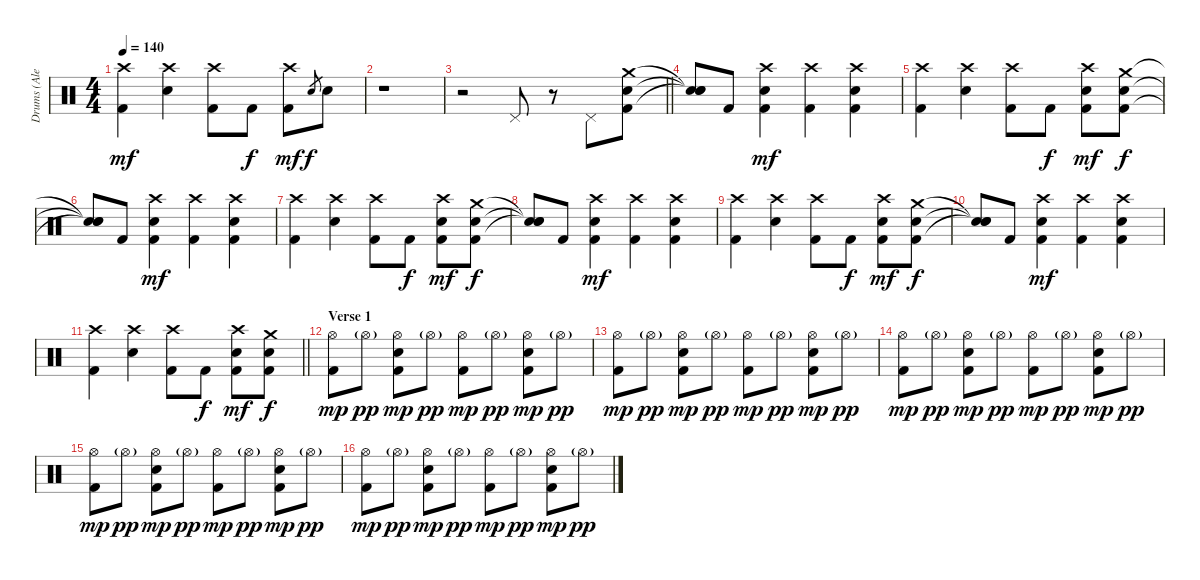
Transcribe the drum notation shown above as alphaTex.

\track ("Drums (Alex Van Halen)" "Drums (Ale") {instrument percussion}
\staff {score}
\articulation defaults
\ts (4 4)
\tempo 140
\clef neutral
\ks c
("Crash high (hit)" "Kick (hit) 2").4{dy mf} ("Crash high (hit)" "Snare (hit) 2").4 ("Crash high (hit)" "Kick (hit) 2").8 "Kick (hit) 2".8{dy f} ("Crash high (hit)" "Kick (hit) 2").8{dy mf} "Snare (hit) 2".8{gr dy f} "Electric Snare (hit)".8 |
r.1 |
\barLineRight lightlight
r.2 "Pedal Hi-Hat (hit)".8 r.8 "Pedal Hi-Hat (hit)".8 ("Crash medium (hit)" "Snare (hit) 2" "Kick (hit) 2").8 |
("Snare (hit)"{t} "Snare (hit)"{t} "Snare (hit)"{t}).8 "Kick (hit) 2".8 ("Crash high (hit)" "Electric Snare (hit)" "Kick (hit) 2").4{dy mf} ("Crash high (hit)" "Kick (hit) 2").4 ("Crash high (hit)" "Electric Snare (hit)" "Kick (hit) 2").4 |
("Crash high (hit)" "Kick (hit) 2").4 ("Crash high (hit)" "Electric Snare (hit)").4 ("Crash high (hit)" "Kick (hit) 2").8 "Kick (hit) 2".8{dy f} ("Crash high (hit)" "Snare (hit) 2" "Kick (hit) 2").8{dy mf} ("Crash medium (hit)" "Electric Snare (hit)" "Kick (hit) 2").8{dy f} |
("Snare (hit)"{t} "Snare (hit)"{t} "Snare (hit)"{t}).8 "Kick (hit) 2".8 ("Crash high (hit)" "Electric Snare (hit)" "Kick (hit) 2").4{dy mf} ("Crash high (hit)" "Kick (hit) 2").4 ("Crash high (hit)" "Electric Snare (hit)" "Kick (hit) 2").4 |
("Crash high (hit)" "Kick (hit) 2").4 ("Crash high (hit)" "Electric Snare (hit)").4 ("Crash high (hit)" "Kick (hit) 2").8 "Kick (hit) 2".8{dy f} ("Crash high (hit)" "Snare (hit) 2" "Kick (hit) 2").8{dy mf} ("Crash medium (hit)" "Electric Snare (hit)" "Kick (hit) 2").8{dy f} |
("Snare (hit)"{t} "Snare (hit)"{t} "Snare (hit)"{t}).8 "Kick (hit) 2".8 ("Crash high (hit)" "Electric Snare (hit)" "Kick (hit) 2").4{dy mf} ("Crash high (hit)" "Kick (hit) 2").4 ("Crash high (hit)" "Electric Snare (hit)" "Kick (hit) 2").4 |
("Crash high (hit)" "Kick (hit) 2").4 ("Crash high (hit)" "Electric Snare (hit)").4 ("Crash high (hit)" "Kick (hit) 2").8 "Kick (hit) 2".8{dy f} ("Crash high (hit)" "Snare (hit) 2" "Kick (hit) 2").8{dy mf} ("Crash medium (hit)" "Electric Snare (hit)" "Kick (hit) 2").8{dy f} |
("Snare (hit)"{t} "Snare (hit)"{t} "Snare (hit)"{t}).8 "Kick (hit) 2".8 ("Crash high (hit)" "Electric Snare (hit)" "Kick (hit) 2").4{dy mf} ("Crash high (hit)" "Kick (hit) 2").4 ("Crash high (hit)" "Electric Snare (hit)" "Kick (hit) 2").4 |
\barLineRight lightlight
("Crash high (hit)" "Kick (hit) 2").4 ("Crash high (hit)" "Electric Snare (hit)").4 ("Crash high (hit)" "Kick (hit) 2").8 "Kick (hit) 2".8{dy f} ("Crash high (hit)" "Snare (hit) 2" "Kick (hit) 2").8{dy mf} ("Crash medium (hit)" "Electric Snare (hit)" "Kick (hit) 2").8{dy f} |
\section ("" "Verse 1")
("Kick (hit) 2" "Hi-Hat (open)").8{dy mp} "Hi-Hat (open)"{g}.8{dy pp} ("Snare (hit) 2" "Kick (hit) 2" "Hi-Hat (open)").8{dy mp} "Hi-Hat (open)"{g}.8{dy pp} ("Kick (hit) 2" "Hi-Hat (open)").8{dy mp} "Hi-Hat (open)"{g}.8{dy pp} ("Snare (hit) 2" "Kick (hit) 2" "Hi-Hat (open)").8{dy mp} "Hi-Hat (open)"{g}.8{dy pp} |
("Kick (hit) 2" "Hi-Hat (open)").8{dy mp} "Hi-Hat (open)"{g}.8{dy pp} ("Snare (hit) 2" "Kick (hit) 2" "Hi-Hat (open)").8{dy mp} "Hi-Hat (open)"{g}.8{dy pp} ("Kick (hit) 2" "Hi-Hat (open)").8{dy mp} "Hi-Hat (open)"{g}.8{dy pp} ("Snare (hit) 2" "Kick (hit) 2" "Hi-Hat (open)").8{dy mp} "Hi-Hat (open)"{g}.8{dy pp} |
("Kick (hit) 2" "Hi-Hat (open)").8{dy mp} "Hi-Hat (open)"{g}.8{dy pp} ("Snare (hit) 2" "Kick (hit) 2" "Hi-Hat (open)").8{dy mp} "Hi-Hat (open)"{g}.8{dy pp} ("Kick (hit) 2" "Hi-Hat (open)").8{dy mp} "Hi-Hat (open)"{g}.8{dy pp} ("Snare (hit) 2" "Kick (hit) 2" "Hi-Hat (open)").8{dy mp} "Hi-Hat (open)"{g}.8{dy pp} |
("Kick (hit) 2" "Hi-Hat (open)").8{dy mp} "Hi-Hat (open)"{g}.8{dy pp} ("Snare (hit) 2" "Kick (hit) 2" "Hi-Hat (open)").8{dy mp} "Hi-Hat (open)"{g}.8{dy pp} ("Kick (hit) 2" "Hi-Hat (open)").8{dy mp} "Hi-Hat (open)"{g}.8{dy pp} ("Snare (hit) 2" "Kick (hit) 2" "Hi-Hat (open)").8{dy mp} "Hi-Hat (open)"{g}.8{dy pp} |
("Kick (hit) 2" "Hi-Hat (open)").8{dy mp} "Hi-Hat (open)"{g}.8{dy pp} ("Snare (hit) 2" "Kick (hit) 2" "Hi-Hat (open)").8{dy mp} "Hi-Hat (open)"{g}.8{dy pp} ("Kick (hit) 2" "Hi-Hat (open)").8{dy mp} "Hi-Hat (open)"{g}.8{dy pp} ("Snare (hit) 2" "Kick (hit) 2" "Hi-Hat (open)").8{dy mp} "Hi-Hat (open)"{g}.8{dy pp}
